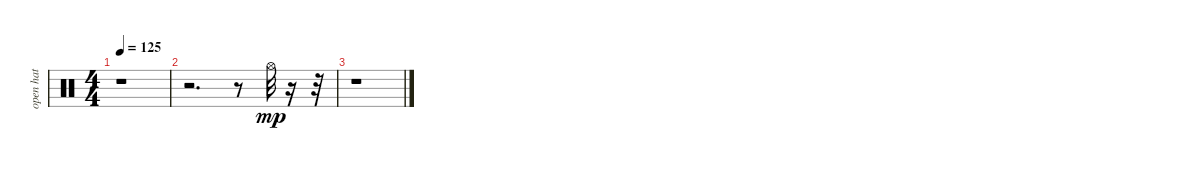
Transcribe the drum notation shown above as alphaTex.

\track ("open hat" "open hat") {instrument percussion}
\staff {score}
\articulation defaults
\ts (4 4)
\tempo 125
\clef neutral
\ks c
r.1{dy mp} |
r.2{d} r.8 "Hi-Hat (open)".32 r.16 r.32 |
r.1
